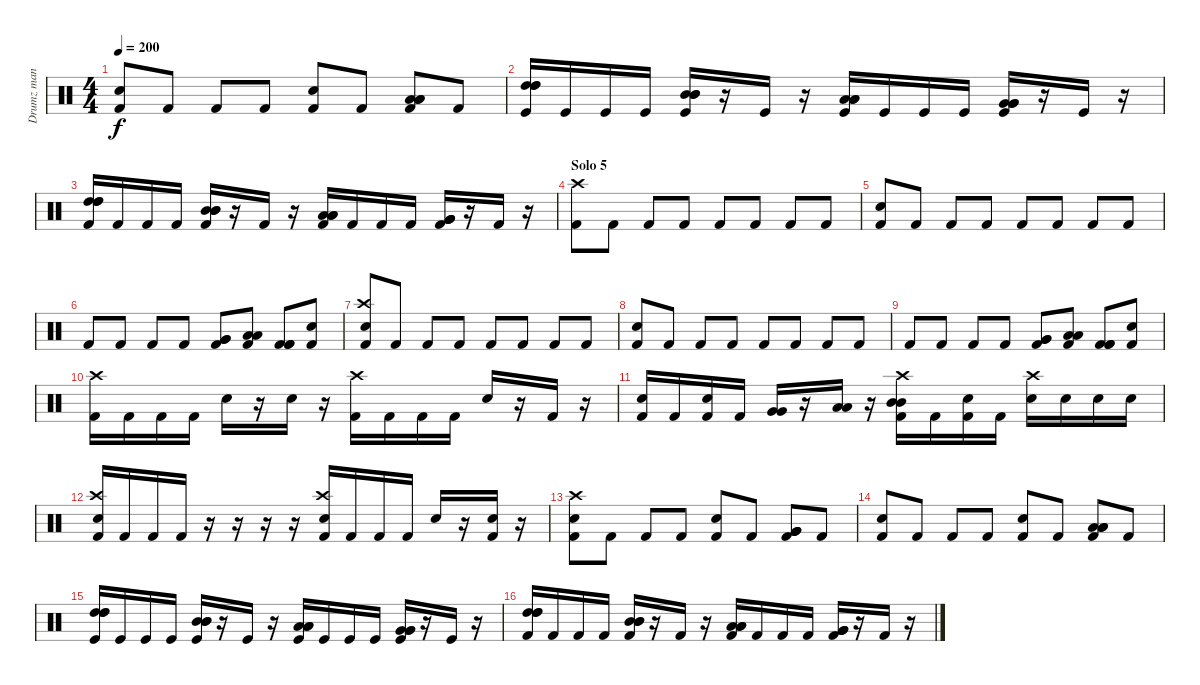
\track ("Drumz man" "Drumz man") {instrument percussion}
\staff {score}
\articulation defaults
\ts (4 4)
\tempo 200
\clef neutral
\ks c
("Kick (hit) 2" "Electric Snare (hit)").8{dy f} "Kick (hit) 2".8 "Kick (hit) 2".8 "Kick (hit) 2".8 ("Kick (hit) 2" "Electric Snare (hit)").8 "Kick (hit) 2".8 ("Kick (hit) 2" "Low Floor Tom (hit)" "Low Floor Tom (hit)" "Low Floor Tom (hit)").8 "Kick (hit) 2".8 |
("Kick (hit)" "High Tom (hit)" "High Tom (hit)" "High Tom (hit)").16 "Kick (hit)".16 "Kick (hit)".16 "Kick (hit)".16 ("Kick (hit)" "Mid Tom (hit)" "Mid Tom (hit)" "Mid Tom (hit)").16 r.16 "Kick (hit)".16 r.16 ("Kick (hit)" "Low Tom (hit)" "Low Tom (hit)" "Low Tom (hit)").16 "Kick (hit)".16 "Kick (hit)".16 "Kick (hit)".16 ("Kick (hit)" "Very Low Tom (hit)" "Very Low Tom (hit)" "Very Low Tom (hit)").16 r.16 "Kick (hit)".16 r.16 |
("Kick (hit) 2" "High Tom (hit)" "High Tom (hit)" "High Tom (hit)").16 "Kick (hit) 2".16 "Kick (hit) 2".16 "Kick (hit) 2".16 ("Kick (hit) 2" "Mid Tom (hit)" "Mid Tom (hit)" "Mid Tom (hit)").16 r.16 "Kick (hit) 2".16 r.16 ("Kick (hit) 2" "Low Tom (hit)" "Low Tom (hit)" "Low Tom (hit)").16 "Kick (hit) 2".16 "Kick (hit) 2".16 "Kick (hit) 2".16 ("Kick (hit) 2" "Very Low Tom (hit)" "Very Low Tom (hit)" "Very Low Tom (hit)").16 r.16 "Kick (hit) 2".16 r.16 |
\section ("" "Solo 5")
("Crash high (hit)" "Kick (hit) 2").8 "Kick (hit) 2".8 "Kick (hit) 2".8 "Kick (hit) 2".8 "Kick (hit) 2".8 "Kick (hit) 2".8 "Kick (hit) 2".8 "Kick (hit) 2".8 |
("Kick (hit) 2" "Snare (hit) 2").8 "Kick (hit) 2".8 "Kick (hit) 2".8 "Kick (hit) 2".8 "Kick (hit) 2".8 "Kick (hit) 2".8 "Kick (hit) 2".8 "Kick (hit) 2".8 |
"Kick (hit) 2".8 "Kick (hit) 2".8 "Kick (hit) 2".8 "Kick (hit) 2".8 ("Kick (hit) 2" "Very Low Tom (hit)" "Very Low Tom (hit)").8 ("Kick (hit) 2" "Low Floor Tom (hit)" "Low Floor Tom (hit)").8 ("Kick (hit) 2" "Kick (hit) 2" "Kick (hit) 2").8 ("Kick (hit) 2" "Electric Snare (hit)").8 |
("Crash high (hit)" "Kick (hit) 2" "Snare (hit) 2").8 "Kick (hit) 2".8 "Kick (hit) 2".8 "Kick (hit) 2".8 "Kick (hit) 2".8 "Kick (hit) 2".8 "Kick (hit) 2".8 "Kick (hit) 2".8 |
("Kick (hit) 2" "Snare (hit) 2").8 "Kick (hit) 2".8 "Kick (hit) 2".8 "Kick (hit) 2".8 "Kick (hit) 2".8 "Kick (hit) 2".8 "Kick (hit) 2".8 "Kick (hit) 2".8 |
"Kick (hit) 2".8 "Kick (hit) 2".8 "Kick (hit) 2".8 "Kick (hit) 2".8 ("Kick (hit) 2" "Very Low Tom (hit)" "Very Low Tom (hit)").8 ("Kick (hit) 2" "Low Floor Tom (hit)" "Low Floor Tom (hit)").8 ("Kick (hit) 2" "Kick (hit) 2" "Kick (hit) 2").8 ("Kick (hit) 2" "Electric Snare (hit)").8 |
("Crash high (hit)" "Kick (hit) 2").16 "Kick (hit) 2".16 "Kick (hit) 2".16 "Kick (hit) 2".16 "Electric Snare (hit)".16 r.16 "Electric Snare (hit)".16 r.16 ("Crash high (hit)" "Kick (hit) 2").16 "Kick (hit) 2".16 "Kick (hit) 2".16 "Kick (hit) 2".16 "Electric Snare (hit)".16 r.16 "Kick (hit) 2".16 r.16 |
("Kick (hit) 2" "Electric Snare (hit)").16 "Kick (hit) 2".16 ("Kick (hit) 2" "Electric Snare (hit)").16 "Kick (hit) 2".16 ("Very Low Tom (hit)" "Very Low Tom (hit)").16 r.16 ("Low Floor Tom (hit)" "Low Floor Tom (hit)").16 r.16 ("Crash high (hit)" "Kick (hit) 2" "Mid Tom (hit)" "Mid Tom (hit)").16 "Kick (hit) 2".16 ("Kick (hit) 2" "Electric Snare (hit)").16 "Kick (hit) 2".16 ("Crash high (hit)" "Electric Snare (hit)").16 "Electric Snare (hit)".16 "Electric Snare (hit)".16 "Electric Snare (hit)".16 |
("Crash high (hit)" "Kick (hit) 2" "Snare (hit) 2").16 "Kick (hit) 2".16 "Kick (hit) 2".16 "Kick (hit) 2".16 r.16 r.16 r.16 r.16 ("Crash high (hit)" "Kick (hit) 2" "Snare (hit) 2").16 "Kick (hit) 2".16 "Kick (hit) 2".16 "Kick (hit) 2".16 "Snare (hit) 2".16 r.16 ("Kick (hit) 2" "Snare (hit) 2").16 r.16 |
("Crash high (hit)" "Kick (hit) 2" "Electric Snare (hit)").8 "Kick (hit) 2".8 "Kick (hit) 2".8 "Kick (hit) 2".8 ("Kick (hit) 2" "Electric Snare (hit)").8 "Kick (hit) 2".8 ("Kick (hit) 2" "Very Low Tom (hit)" "Very Low Tom (hit)" "Very Low Tom (hit)").8 "Kick (hit) 2".8 |
("Kick (hit) 2" "Electric Snare (hit)").8 "Kick (hit) 2".8 "Kick (hit) 2".8 "Kick (hit) 2".8 ("Kick (hit) 2" "Electric Snare (hit)").8 "Kick (hit) 2".8 ("Kick (hit) 2" "Low Floor Tom (hit)" "Low Floor Tom (hit)" "Low Floor Tom (hit)").8 "Kick (hit) 2".8 |
("Kick (hit)" "High Tom (hit)" "High Tom (hit)" "High Tom (hit)").16 "Kick (hit)".16 "Kick (hit)".16 "Kick (hit)".16 ("Kick (hit)" "Mid Tom (hit)" "Mid Tom (hit)" "Mid Tom (hit)").16 r.16 "Kick (hit)".16 r.16 ("Kick (hit)" "Low Tom (hit)" "Low Tom (hit)" "Low Tom (hit)").16 "Kick (hit)".16 "Kick (hit)".16 "Kick (hit)".16 ("Kick (hit)" "Very Low Tom (hit)" "Very Low Tom (hit)" "Very Low Tom (hit)").16 r.16 "Kick (hit)".16 r.16 |
("Kick (hit) 2" "High Tom (hit)" "High Tom (hit)" "High Tom (hit)").16 "Kick (hit) 2".16 "Kick (hit) 2".16 "Kick (hit) 2".16 ("Kick (hit) 2" "Mid Tom (hit)" "Mid Tom (hit)" "Mid Tom (hit)").16 r.16 "Kick (hit) 2".16 r.16 ("Kick (hit) 2" "Low Tom (hit)" "Low Tom (hit)" "Low Tom (hit)").16 "Kick (hit) 2".16 "Kick (hit) 2".16 "Kick (hit) 2".16 ("Kick (hit) 2" "Very Low Tom (hit)" "Very Low Tom (hit)" "Very Low Tom (hit)").16 r.16 "Kick (hit) 2".16 r.16
